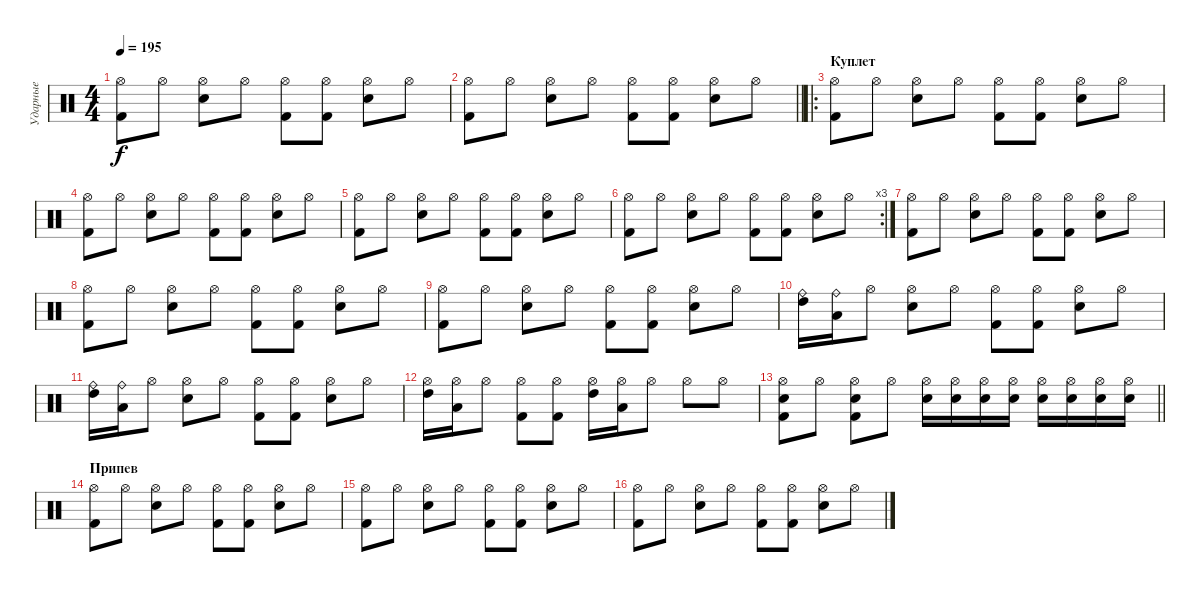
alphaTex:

\track ("Ударные" "Ударные") {instrument percussion}
\staff {score}
\articulation defaults
\ts (4 4)
\tempo 195
\clef neutral
\ks c
("Hi-Hat (open)" "Kick (hit) 2").8{dy f} "Hi-Hat (open)".8 ("Hi-Hat (open)" "Snare (hit) 2").8 "Hi-Hat (open)".8 ("Hi-Hat (open)" "Kick (hit) 2").8 ("Hi-Hat (open)" "Kick (hit) 2").8 ("Hi-Hat (open)" "Snare (hit) 2").8 "Hi-Hat (open)".8 |
\barLineRight lightlight
("Hi-Hat (open)" "Kick (hit) 2").8 "Hi-Hat (open)".8 ("Hi-Hat (open)" "Snare (hit) 2").8 "Hi-Hat (open)".8 ("Hi-Hat (open)" "Kick (hit) 2").8 ("Hi-Hat (open)" "Kick (hit) 2").8 ("Hi-Hat (open)" "Snare (hit) 2").8 "Hi-Hat (open)".8 |
\ro
\section ("" "Куплет")
("Hi-Hat (open)" "Kick (hit) 2").8 "Hi-Hat (open)".8 ("Hi-Hat (open)" "Snare (hit) 2").8 "Hi-Hat (open)".8 ("Hi-Hat (open)" "Kick (hit) 2").8 ("Hi-Hat (open)" "Kick (hit) 2").8 ("Hi-Hat (open)" "Snare (hit) 2").8 "Hi-Hat (open)".8 |
("Hi-Hat (open)" "Kick (hit) 2").8 "Hi-Hat (open)".8 ("Hi-Hat (open)" "Snare (hit) 2").8 "Hi-Hat (open)".8 ("Hi-Hat (open)" "Kick (hit) 2").8 ("Hi-Hat (open)" "Kick (hit) 2").8 ("Hi-Hat (open)" "Snare (hit) 2").8 "Hi-Hat (open)".8 |
("Hi-Hat (open)" "Kick (hit) 2").8 "Hi-Hat (open)".8 ("Hi-Hat (open)" "Snare (hit) 2").8 "Hi-Hat (open)".8 ("Hi-Hat (open)" "Kick (hit) 2").8 ("Hi-Hat (open)" "Kick (hit) 2").8 ("Hi-Hat (open)" "Snare (hit) 2").8 "Hi-Hat (open)".8 |
\rc 3
("Hi-Hat (open)" "Kick (hit) 2").8 "Hi-Hat (open)".8 ("Hi-Hat (open)" "Snare (hit) 2").8 "Hi-Hat (open)".8 ("Hi-Hat (open)" "Kick (hit) 2").8 ("Hi-Hat (open)" "Kick (hit) 2").8 ("Hi-Hat (open)" "Snare (hit) 2").8 "Hi-Hat (open)".8 |
("Hi-Hat (open)" "Kick (hit) 2").8 "Hi-Hat (open)".8 ("Hi-Hat (open)" "Snare (hit) 2").8 "Hi-Hat (open)".8 ("Hi-Hat (open)" "Kick (hit) 2").8 ("Hi-Hat (open)" "Kick (hit) 2").8 ("Hi-Hat (open)" "Snare (hit) 2").8 "Hi-Hat (open)".8 |
("Hi-Hat (open)" "Kick (hit) 2").8 "Hi-Hat (open)".8 ("Hi-Hat (open)" "Snare (hit) 2").8 "Hi-Hat (open)".8 ("Hi-Hat (open)" "Kick (hit) 2").8 ("Hi-Hat (open)" "Kick (hit) 2").8 ("Hi-Hat (open)" "Snare (hit) 2").8 "Hi-Hat (open)".8 |
("Hi-Hat (open)" "Kick (hit) 2").8 "Hi-Hat (open)".8 ("Hi-Hat (open)" "Snare (hit) 2").8 "Hi-Hat (open)".8 ("Hi-Hat (open)" "Kick (hit) 2").8 ("Hi-Hat (open)" "Kick (hit) 2").8 ("Hi-Hat (open)" "Snare (hit) 2").8 "Hi-Hat (open)".8 |
("Ride (bell)" "High Tom (hit)").16 ("Ride (bell)" "Low Tom (hit)").16 "Hi-Hat (open)".8 ("Hi-Hat (open)" "Snare (hit) 2").8 "Hi-Hat (open)".8 ("Hi-Hat (open)" "Kick (hit) 2").8 ("Hi-Hat (open)" "Kick (hit) 2").8 ("Hi-Hat (open)" "Snare (hit) 2").8 "Hi-Hat (open)".8 |
("Ride (bell)" "High Tom (hit)").16 ("Ride (bell)" "Low Tom (hit)").16 "Hi-Hat (open)".8 ("Hi-Hat (open)" "Snare (hit) 2").8 "Hi-Hat (open)".8 ("Hi-Hat (open)" "Kick (hit) 2").8 ("Hi-Hat (open)" "Kick (hit) 2").8 ("Hi-Hat (open)" "Snare (hit) 2").8 "Hi-Hat (open)".8 |
("Hi-Hat (open)" "High Tom (hit)").16 ("Hi-Hat (open)" "Low Tom (hit)").16 "Hi-Hat (open)".8 ("Hi-Hat (open)" "Kick (hit) 2").8 ("Hi-Hat (open)" "Kick (hit) 2").8 ("Hi-Hat (open)" "High Tom (hit)").16 ("Hi-Hat (open)" "Low Tom (hit)").16 "Hi-Hat (open)".8 "Hi-Hat (open)".8 "Hi-Hat (open)".8 |
\barLineRight lightlight
("Hi-Hat (open)" "Kick (hit) 2" "Snare (hit) 2").8 "Hi-Hat (open)".8 ("Hi-Hat (open)" "Kick (hit) 2" "Snare (hit) 2").8 "Hi-Hat (open)".8 ("Snare (hit) 2" "Hi-Hat (open)").16 ("Snare (hit) 2" "Hi-Hat (open)").16 ("Snare (hit) 2" "Hi-Hat (open)").16 ("Snare (hit) 2" "Hi-Hat (open)").16 ("Snare (hit) 2" "Hi-Hat (open)").16 ("Snare (hit) 2" "Hi-Hat (open)").16 ("Snare (hit) 2" "Hi-Hat (open)").16 ("Snare (hit) 2" "Hi-Hat (open)").16 |
\section ("" "Припев")
("Hi-Hat (open)" "Kick (hit) 2").8 "Hi-Hat (open)".8 ("Hi-Hat (open)" "Snare (hit) 2").8 "Hi-Hat (open)".8 ("Hi-Hat (open)" "Kick (hit) 2").8 ("Hi-Hat (open)" "Kick (hit) 2").8 ("Hi-Hat (open)" "Snare (hit) 2").8 "Hi-Hat (open)".8 |
("Hi-Hat (open)" "Kick (hit) 2").8 "Hi-Hat (open)".8 ("Hi-Hat (open)" "Snare (hit) 2").8 "Hi-Hat (open)".8 ("Hi-Hat (open)" "Kick (hit) 2").8 ("Hi-Hat (open)" "Kick (hit) 2").8 ("Hi-Hat (open)" "Snare (hit) 2").8 "Hi-Hat (open)".8 |
("Hi-Hat (open)" "Kick (hit) 2").8 "Hi-Hat (open)".8 ("Hi-Hat (open)" "Snare (hit) 2").8 "Hi-Hat (open)".8 ("Hi-Hat (open)" "Kick (hit) 2").8 ("Hi-Hat (open)" "Kick (hit) 2").8 ("Hi-Hat (open)" "Snare (hit) 2").8 "Hi-Hat (open)".8
